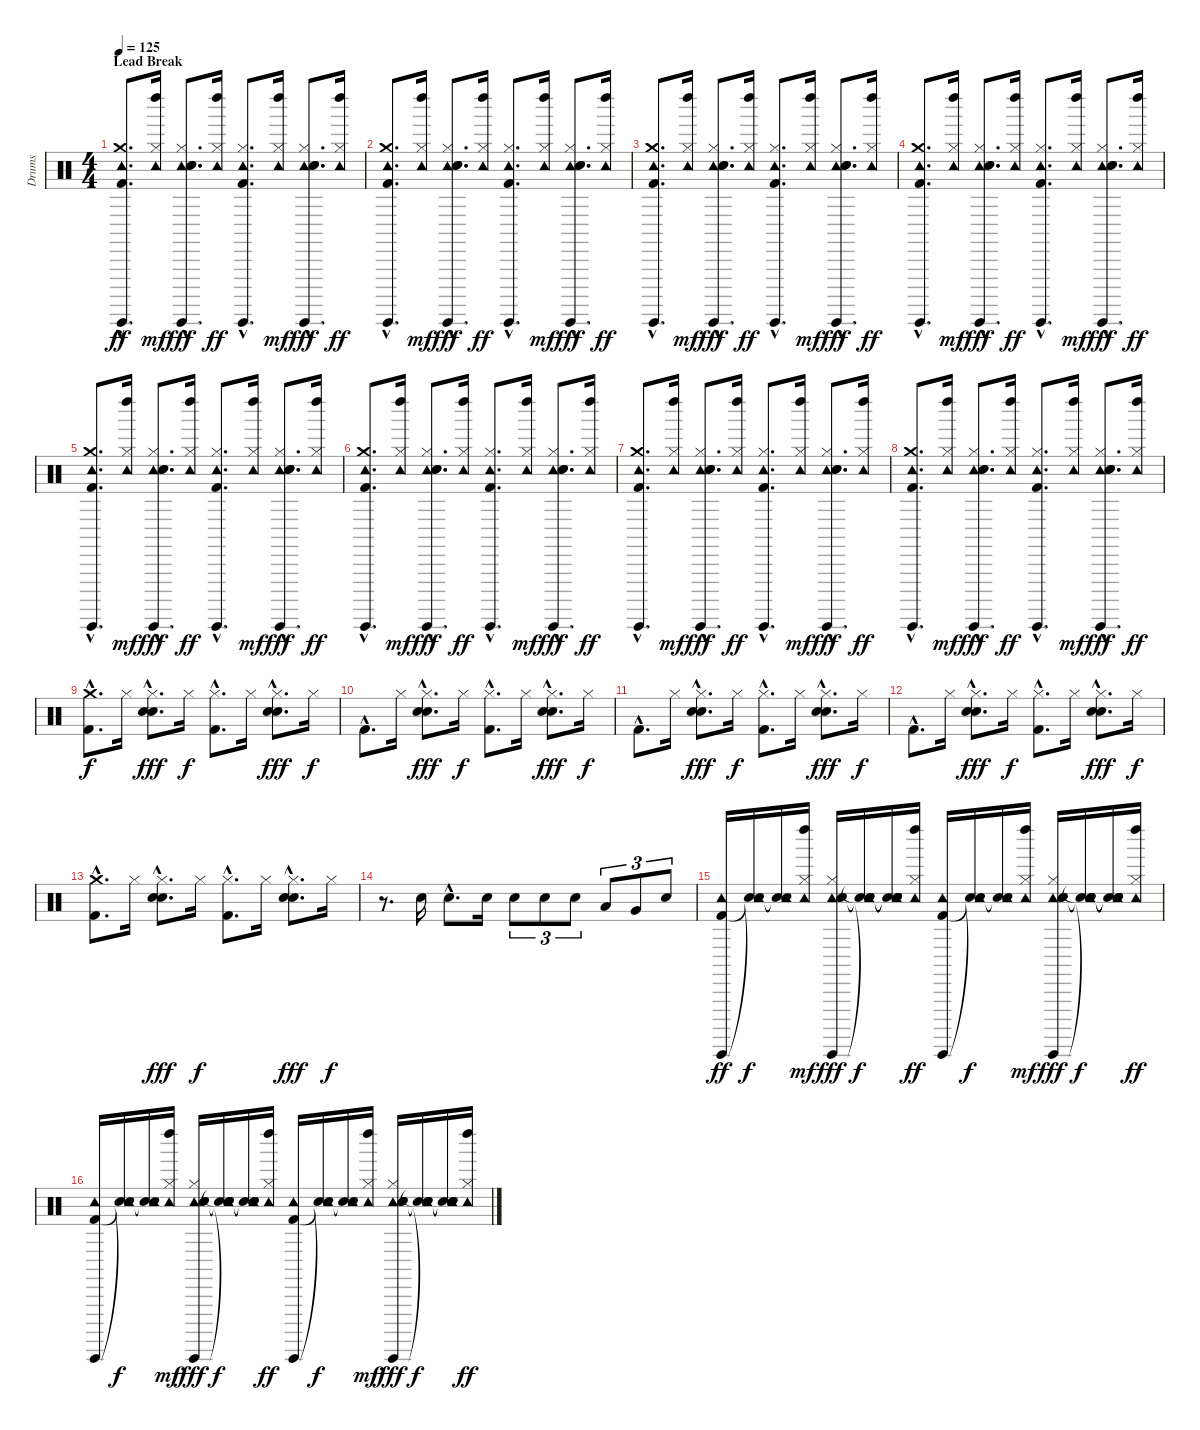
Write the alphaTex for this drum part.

\track ("Drums" "Drums") {instrument percussion}
\staff {score}
\articulation defaults
\ts (4 4)
\section ("" "Lead Break")
\tempo 125
\clef neutral
\ks c
("Guiro (hit)"{hac} "Tambourine (hit)"{hac} "Crash medium (hit)"{hac} "Kick (hit) 2"{hac}).8{d dy ff} ("Left Maraca (hit)" "Tambourine (hit)" "Hi-Hat (closed)").16{dy mf} ("Guiro (hit)"{hac} "Tambourine (hit)"{hac} "Hi-Hat (closed)"{hac} "Hand Clap (hit)"{hac} "Snare (hit) 2"{hac}).8{d dy fff} ("Left Maraca (hit)" "Tambourine (hit)" "Hi-Hat (closed)").16{dy ff} ("Guiro (hit)"{hac} "Tambourine (hit)"{hac} "Hi-Hat (closed)"{hac} "Kick (hit) 2"{hac}).8{d} ("Left Maraca (hit)" "Tambourine (hit)" "Hi-Hat (closed)").16{dy mf} ("Guiro (hit)"{hac} "Tambourine (hit)"{hac} "Hi-Hat (closed)"{hac} "Hand Clap (hit)"{hac} "Snare (hit) 2"{hac}).8{d dy fff} ("Left Maraca (hit)" "Tambourine (hit)" "Hi-Hat (closed)").16{dy ff} |
("Guiro (hit)"{hac} "Tambourine (hit)"{hac} "Crash medium (hit)"{hac} "Kick (hit) 2"{hac}).8{d} ("Left Maraca (hit)" "Tambourine (hit)" "Hi-Hat (closed)").16{dy mf} ("Guiro (hit)"{hac} "Tambourine (hit)"{hac} "Hi-Hat (closed)"{hac} "Hand Clap (hit)"{hac} "Snare (hit) 2"{hac}).8{d dy fff} ("Left Maraca (hit)" "Tambourine (hit)" "Hi-Hat (closed)").16{dy ff} ("Guiro (hit)"{hac} "Tambourine (hit)"{hac} "Hi-Hat (closed)"{hac} "Kick (hit) 2"{hac}).8{d} ("Left Maraca (hit)" "Tambourine (hit)" "Hi-Hat (closed)").16{dy mf} ("Guiro (hit)"{hac} "Tambourine (hit)"{hac} "Hi-Hat (closed)"{hac} "Hand Clap (hit)"{hac} "Snare (hit) 2"{hac}).8{d dy fff} ("Left Maraca (hit)" "Tambourine (hit)" "Hi-Hat (closed)").16{dy ff} |
("Guiro (hit)"{hac} "Tambourine (hit)"{hac} "Crash medium (hit)"{hac} "Kick (hit) 2"{hac}).8{d} ("Left Maraca (hit)" "Tambourine (hit)" "Hi-Hat (closed)").16{dy mf} ("Guiro (hit)"{hac} "Tambourine (hit)"{hac} "Hi-Hat (closed)"{hac} "Hand Clap (hit)"{hac} "Snare (hit) 2"{hac}).8{d dy fff} ("Left Maraca (hit)" "Tambourine (hit)" "Hi-Hat (closed)").16{dy ff} ("Guiro (hit)"{hac} "Tambourine (hit)"{hac} "Hi-Hat (closed)"{hac} "Kick (hit) 2"{hac}).8{d} ("Left Maraca (hit)" "Tambourine (hit)" "Hi-Hat (closed)").16{dy mf} ("Guiro (hit)"{hac} "Tambourine (hit)"{hac} "Hi-Hat (closed)"{hac} "Hand Clap (hit)"{hac} "Snare (hit) 2"{hac}).8{d dy fff} ("Left Maraca (hit)" "Tambourine (hit)" "Hi-Hat (closed)").16{dy ff} |
("Guiro (hit)"{hac} "Tambourine (hit)"{hac} "Crash medium (hit)"{hac} "Kick (hit) 2"{hac}).8{d} ("Left Maraca (hit)" "Tambourine (hit)" "Hi-Hat (closed)").16{dy mf} ("Guiro (hit)"{hac} "Tambourine (hit)"{hac} "Hi-Hat (closed)"{hac} "Hand Clap (hit)"{hac} "Snare (hit) 2"{hac}).8{d dy fff} ("Left Maraca (hit)" "Tambourine (hit)" "Hi-Hat (closed)").16{dy ff} ("Guiro (hit)"{hac} "Tambourine (hit)"{hac} "Hi-Hat (closed)"{hac} "Kick (hit) 2"{hac}).8{d} ("Left Maraca (hit)" "Tambourine (hit)" "Hi-Hat (closed)").16{dy mf} ("Guiro (hit)"{hac} "Tambourine (hit)"{hac} "Hi-Hat (closed)"{hac} "Hand Clap (hit)"{hac} "Snare (hit) 2"{hac}).8{d dy fff} ("Left Maraca (hit)" "Tambourine (hit)" "Hi-Hat (closed)").16{dy ff} |
("Guiro (hit)"{hac} "Tambourine (hit)"{hac} "Crash medium (hit)"{hac} "Kick (hit) 2"{hac}).8{d} ("Left Maraca (hit)" "Tambourine (hit)" "Hi-Hat (closed)").16{dy mf} ("Guiro (hit)"{hac} "Tambourine (hit)"{hac} "Hi-Hat (closed)"{hac} "Hand Clap (hit)"{hac} "Snare (hit) 2"{hac}).8{d dy fff} ("Left Maraca (hit)" "Tambourine (hit)" "Hi-Hat (closed)").16{dy ff} ("Guiro (hit)"{hac} "Tambourine (hit)"{hac} "Hi-Hat (closed)"{hac} "Kick (hit) 2"{hac}).8{d} ("Left Maraca (hit)" "Tambourine (hit)" "Hi-Hat (closed)").16{dy mf} ("Guiro (hit)"{hac} "Tambourine (hit)"{hac} "Hi-Hat (closed)"{hac} "Hand Clap (hit)"{hac} "Snare (hit) 2"{hac}).8{d dy fff} ("Left Maraca (hit)" "Tambourine (hit)" "Hi-Hat (closed)").16{dy ff} |
("Guiro (hit)"{hac} "Tambourine (hit)"{hac} "Crash medium (hit)"{hac} "Kick (hit) 2"{hac}).8{d} ("Left Maraca (hit)" "Tambourine (hit)" "Hi-Hat (closed)").16{dy mf} ("Guiro (hit)"{hac} "Tambourine (hit)"{hac} "Hi-Hat (closed)"{hac} "Hand Clap (hit)"{hac} "Snare (hit) 2"{hac}).8{d dy fff} ("Left Maraca (hit)" "Tambourine (hit)" "Hi-Hat (closed)").16{dy ff} ("Guiro (hit)"{hac} "Tambourine (hit)"{hac} "Hi-Hat (closed)"{hac} "Kick (hit) 2"{hac}).8{d} ("Left Maraca (hit)" "Tambourine (hit)" "Hi-Hat (closed)").16{dy mf} ("Guiro (hit)"{hac} "Tambourine (hit)"{hac} "Hi-Hat (closed)"{hac} "Hand Clap (hit)"{hac} "Snare (hit) 2"{hac}).8{d dy fff} ("Left Maraca (hit)" "Tambourine (hit)" "Hi-Hat (closed)").16{dy ff} |
("Guiro (hit)"{hac} "Tambourine (hit)"{hac} "Crash medium (hit)"{hac} "Kick (hit) 2"{hac}).8{d} ("Left Maraca (hit)" "Tambourine (hit)" "Hi-Hat (closed)").16{dy mf} ("Guiro (hit)"{hac} "Tambourine (hit)"{hac} "Hi-Hat (closed)"{hac} "Hand Clap (hit)"{hac} "Snare (hit) 2"{hac}).8{d dy fff} ("Left Maraca (hit)" "Tambourine (hit)" "Hi-Hat (closed)").16{dy ff} ("Guiro (hit)"{hac} "Tambourine (hit)"{hac} "Hi-Hat (closed)"{hac} "Kick (hit) 2"{hac}).8{d} ("Left Maraca (hit)" "Tambourine (hit)" "Hi-Hat (closed)").16{dy mf} ("Guiro (hit)"{hac} "Tambourine (hit)"{hac} "Hi-Hat (closed)"{hac} "Hand Clap (hit)"{hac} "Snare (hit) 2"{hac}).8{d dy fff} ("Left Maraca (hit)" "Tambourine (hit)" "Hi-Hat (closed)").16{dy ff} |
("Guiro (hit)"{hac} "Tambourine (hit)"{hac} "Crash medium (hit)"{hac} "Kick (hit) 2"{hac}).8{d} ("Left Maraca (hit)" "Tambourine (hit)" "Hi-Hat (closed)").16{dy mf} ("Guiro (hit)"{hac} "Tambourine (hit)"{hac} "Hi-Hat (closed)"{hac} "Hand Clap (hit)"{hac} "Snare (hit) 2"{hac}).8{d dy fff} ("Left Maraca (hit)" "Tambourine (hit)" "Hi-Hat (closed)").16{dy ff} ("Guiro (hit)"{hac} "Tambourine (hit)"{hac} "Hi-Hat (closed)"{hac} "Kick (hit) 2"{hac}).8{d} ("Left Maraca (hit)" "Tambourine (hit)" "Hi-Hat (closed)").16{dy mf} ("Guiro (hit)"{hac} "Tambourine (hit)"{hac} "Hi-Hat (closed)"{hac} "Hand Clap (hit)"{hac} "Snare (hit) 2"{hac}).8{d dy fff} ("Left Maraca (hit)" "Tambourine (hit)" "Hi-Hat (closed)").16{dy ff} |
("Crash medium (hit)"{hac} "Kick (hit) 2"{hac}).8{d dy f} "Hi-Hat (closed)".16 ("Hand Clap (hit)"{hac} "Hi-Hat (closed)"{hac} "Snare (hit) 2"{hac}).8{d dy fff} "Hi-Hat (closed)".16{dy f} ("Hi-Hat (closed)"{hac} "Kick (hit) 2"{hac}).8{d} "Hi-Hat (closed)".16 ("Hand Clap (hit)"{hac} "Hi-Hat (closed)"{hac} "Snare (hit) 2"{hac}).8{d dy fff} "Hi-Hat (closed)".16{dy f} |
"Kick (hit) 2"{hac}.8{d} "Hi-Hat (closed)".16 ("Hand Clap (hit)"{hac} "Hi-Hat (closed)"{hac} "Snare (hit) 2"{hac}).8{d dy fff} "Hi-Hat (closed)".16{dy f} ("Hi-Hat (closed)"{hac} "Kick (hit) 2"{hac}).8{d} "Hi-Hat (closed)".16 ("Hand Clap (hit)"{hac} "Hi-Hat (closed)"{hac} "Snare (hit) 2"{hac}).8{d dy fff} "Hi-Hat (closed)".16{dy f} |
"Kick (hit) 2"{hac}.8{d} "Hi-Hat (closed)".16 ("Hand Clap (hit)"{hac} "Hi-Hat (closed)"{hac} "Snare (hit) 2"{hac}).8{d dy fff} "Hi-Hat (closed)".16{dy f} ("Hi-Hat (closed)"{hac} "Kick (hit) 2"{hac}).8{d} "Hi-Hat (closed)".16 ("Hand Clap (hit)"{hac} "Hi-Hat (closed)"{hac} "Snare (hit) 2"{hac}).8{d dy fff} "Hi-Hat (closed)".16{dy f} |
"Kick (hit) 2"{hac}.8{d} "Hi-Hat (closed)".16 ("Hand Clap (hit)"{hac} "Hi-Hat (closed)"{hac} "Snare (hit) 2"{hac}).8{d dy fff} "Hi-Hat (closed)".16{dy f} ("Hi-Hat (closed)"{hac} "Kick (hit) 2"{hac}).8{d} "Hi-Hat (closed)".16 ("Hand Clap (hit)"{hac} "Hi-Hat (closed)"{hac} "Snare (hit) 2"{hac}).8{d dy fff} "Hi-Hat (closed)".16{dy f} |
("Crash medium (hit)"{hac} "Kick (hit) 2"{hac}).8{d} "Hi-Hat (closed)".16 ("Hand Clap (hit)"{hac} "Hi-Hat (closed)"{hac} "Snare (hit) 2"{hac}).8{d dy fff} "Hi-Hat (closed)".16{dy f} ("Hi-Hat (closed)"{hac} "Kick (hit) 2"{hac}).8{d} "Hi-Hat (closed)".16 ("Hand Clap (hit)"{hac} "Hi-Hat (closed)"{hac} "Snare (hit) 2"{hac}).8{d dy fff} "Hi-Hat (closed)".16{dy f} |
r.8{d} "Snare (hit) 2".16 "Snare (hit) 2"{hac}.8{d} "Snare (hit) 2".16 "Snare (hit) 2".8{tu (3 2)} "Snare (hit) 2".8{tu (3 2)} "Snare (hit) 2".8{tu (3 2)} "Low Tom (hit)".8{tu (3 2)} "Very Low Tom (hit)".8{tu (3 2)} "Snare (hit) 2".8{tu (3 2)} |
("Guiro (hit)" "Tambourine (hit)" "Kick (hit) 2").16{dy ff} ("Snare (hit)"{t} "Tambourine (hit)" "Snare (hit)"{t}).16{dy f} ("Snare (hit)"{t} "Tambourine (hit)" "Snare (hit)"{t}).16 ("Left Maraca (hit)" "Tambourine (hit)" "Hi-Hat (closed)").16{dy mf} ("Guiro (hit)" "Tambourine (hit)" "Hi-Hat (closed)" "Hand Clap (hit)" "Snare (hit) 2").16{dy fff} ("Snare (hit)"{t} "Tambourine (hit)" "Snare (hit)"{t} "Snare (hit)"{t} "Snare (hit)"{t}).16{dy f} ("Snare (hit)"{t} "Tambourine (hit)" "Snare (hit)"{t} "Snare (hit)"{t} "Snare (hit)"{t}).16 ("Left Maraca (hit)" "Tambourine (hit)" "Hi-Hat (closed)").16{dy ff} ("Guiro (hit)" "Tambourine (hit)" "Kick (hit) 2").16 ("Snare (hit)"{t} "Tambourine (hit)" "Snare (hit)"{t}).16{dy f} ("Snare (hit)"{t} "Tambourine (hit)" "Snare (hit)"{t}).16 ("Left Maraca (hit)" "Tambourine (hit)" "Hi-Hat (closed)").16{dy mf} ("Guiro (hit)" "Tambourine (hit)" "Hi-Hat (closed)" "Hand Clap (hit)" "Snare (hit) 2").16{dy fff} ("Snare (hit)"{t} "Tambourine (hit)" "Snare (hit)"{t} "Snare (hit)"{t} "Snare (hit)"{t}).16{dy f} ("Snare (hit)"{t} "Tambourine (hit)" "Snare (hit)"{t} "Snare (hit)"{t} "Snare (hit)"{t}).16 ("Left Maraca (hit)" "Tambourine (hit)" "Hi-Hat (closed)").16{dy ff} |
("Guiro (hit)" "Tambourine (hit)" "Kick (hit) 2").16 ("Snare (hit)"{t} "Tambourine (hit)" "Snare (hit)"{t}).16{dy f} ("Snare (hit)"{t} "Tambourine (hit)" "Snare (hit)"{t}).16 ("Left Maraca (hit)" "Tambourine (hit)" "Hi-Hat (closed)").16{dy mf} ("Guiro (hit)" "Tambourine (hit)" "Hi-Hat (closed)" "Hand Clap (hit)" "Snare (hit) 2").16{dy fff} ("Snare (hit)"{t} "Tambourine (hit)" "Snare (hit)"{t} "Snare (hit)"{t} "Snare (hit)"{t}).16{dy f} ("Snare (hit)"{t} "Tambourine (hit)" "Snare (hit)"{t} "Snare (hit)"{t} "Snare (hit)"{t}).16 ("Left Maraca (hit)" "Tambourine (hit)" "Hi-Hat (closed)").16{dy ff} ("Guiro (hit)" "Tambourine (hit)" "Kick (hit) 2").16 ("Snare (hit)"{t} "Tambourine (hit)" "Snare (hit)"{t}).16{dy f} ("Snare (hit)"{t} "Tambourine (hit)" "Snare (hit)"{t}).16 ("Left Maraca (hit)" "Tambourine (hit)" "Hi-Hat (closed)").16{dy mf} ("Guiro (hit)" "Tambourine (hit)" "Hi-Hat (closed)" "Hand Clap (hit)" "Snare (hit) 2").16{dy fff} ("Snare (hit)"{t} "Tambourine (hit)" "Snare (hit)"{t} "Snare (hit)"{t} "Snare (hit)"{t}).16{dy f} ("Snare (hit)"{t} "Tambourine (hit)" "Snare (hit)"{t} "Snare (hit)"{t} "Snare (hit)"{t}).16 ("Left Maraca (hit)" "Tambourine (hit)" "Hi-Hat (closed)").16{dy ff}
